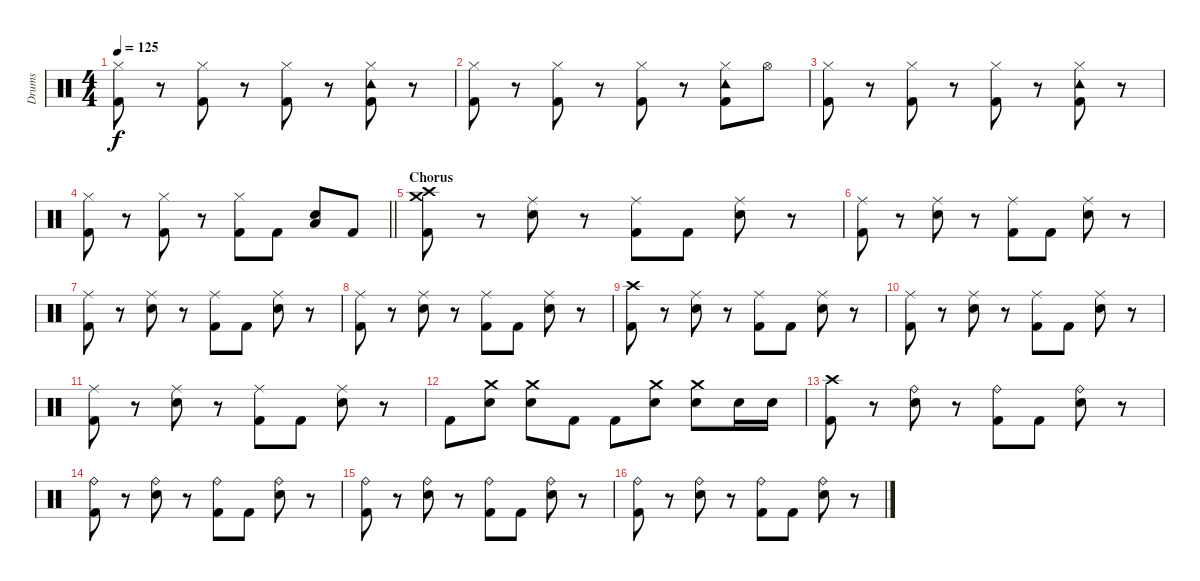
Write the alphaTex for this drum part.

\track ("Drums" "Drums") {instrument percussion}
\staff {score}
\articulation defaults
\ts (4 4)
\tempo 125
\clef neutral
\ks c
("Hi-Hat (closed)" "Kick (hit) 2").8{dy f} r.8 ("Hi-Hat (closed)" "Kick (hit) 2").8 r.8 ("Hi-Hat (closed)" "Kick (hit) 2").8 r.8 ("Tambourine (hit)" "Hi-Hat (closed)" "Kick (hit) 2").8 r.8 |
("Hi-Hat (closed)" "Kick (hit) 2").8 r.8 ("Hi-Hat (closed)" "Kick (hit) 2").8 r.8 ("Hi-Hat (closed)" "Kick (hit) 2").8 r.8 ("Tambourine (hit)" "Hi-Hat (closed)" "Kick (hit) 2").8 "Hi-Hat (open)".8 |
("Hi-Hat (closed)" "Kick (hit) 2").8 r.8 ("Hi-Hat (closed)" "Kick (hit) 2").8 r.8 ("Hi-Hat (closed)" "Kick (hit) 2").8 r.8 ("Tambourine (hit)" "Hi-Hat (closed)" "Kick (hit) 2").8 r.8 |
\barLineRight lightlight
("Hi-Hat (closed)" "Kick (hit) 2").8 r.8 ("Hi-Hat (closed)" "Kick (hit) 2").8 r.8 ("Hi-Hat (closed)" "Kick (hit) 2").8 "Kick (hit) 2".8 ("Snare (hit) 2" "Low Tom (hit)").8 "Kick (hit) 2".8 |
\section ("" "Chorus")
("Crash medium (hit)" "Crash high (hit)" "Kick (hit) 2").8 r.8 ("Ride (middle)" "Snare (hit) 2").8 r.8 ("Ride (middle)" "Kick (hit) 2").8 "Kick (hit) 2".8 ("Ride (middle)" "Snare (hit) 2").8 r.8 |
("Ride (middle)" "Kick (hit) 2").8 r.8 ("Ride (middle)" "Snare (hit) 2").8 r.8 ("Ride (middle)" "Kick (hit) 2").8 "Kick (hit) 2".8 ("Ride (middle)" "Snare (hit) 2").8 r.8 |
("Ride (middle)" "Kick (hit) 2").8 r.8 ("Ride (middle)" "Snare (hit) 2").8 r.8 ("Ride (middle)" "Kick (hit) 2").8 "Kick (hit) 2".8 ("Ride (middle)" "Snare (hit) 2").8 r.8 |
("Ride (middle)" "Kick (hit) 2").8 r.8 ("Ride (middle)" "Snare (hit) 2").8 r.8 ("Ride (middle)" "Kick (hit) 2").8 "Kick (hit) 2".8 ("Ride (middle)" "Snare (hit) 2").8 r.8 |
("Crash high (hit)" "Kick (hit) 2").8 r.8 ("Ride (middle)" "Snare (hit) 2").8 r.8 ("Ride (middle)" "Kick (hit) 2").8 "Kick (hit) 2".8 ("Ride (middle)" "Snare (hit) 2").8 r.8 |
("Ride (middle)" "Kick (hit) 2").8 r.8 ("Ride (middle)" "Snare (hit) 2").8 r.8 ("Ride (middle)" "Kick (hit) 2").8 "Kick (hit) 2".8 ("Ride (middle)" "Snare (hit) 2").8 r.8 |
("Ride (middle)" "Kick (hit) 2").8 r.8 ("Ride (middle)" "Snare (hit) 2").8 r.8 ("Ride (middle)" "Kick (hit) 2").8 "Kick (hit) 2".8 ("Ride (middle)" "Snare (hit) 2").8 r.8 |
"Kick (hit) 2".8 ("Crash medium (hit)" "Snare (hit) 2").8 ("Crash medium (hit)" "Snare (hit) 2").8 "Kick (hit) 2".8 "Kick (hit) 2".8 ("Crash medium (hit)" "Snare (hit) 2").8 ("Crash medium (hit)" "Snare (hit) 2").8 "Snare (hit) 2".16 "Snare (hit) 2".16 |
("Crash high (hit)" "Kick (hit) 2").8 r.8 ("Ride (bell)" "Snare (hit) 2").8 r.8 ("Ride (bell)" "Kick (hit) 2").8 "Kick (hit) 2".8 ("Ride (bell)" "Snare (hit) 2").8 r.8 |
("Ride (bell)" "Kick (hit) 2").8 r.8 ("Ride (bell)" "Snare (hit) 2").8 r.8 ("Ride (bell)" "Kick (hit) 2").8 "Kick (hit) 2".8 ("Ride (bell)" "Snare (hit) 2").8 r.8 |
("Ride (bell)" "Kick (hit) 2").8 r.8 ("Ride (bell)" "Snare (hit) 2").8 r.8 ("Ride (bell)" "Kick (hit) 2").8 "Kick (hit) 2".8 ("Ride (bell)" "Snare (hit) 2").8 r.8 |
("Ride (bell)" "Kick (hit) 2").8 r.8 ("Ride (bell)" "Snare (hit) 2").8 r.8 ("Ride (bell)" "Kick (hit) 2").8 "Kick (hit) 2".8 ("Ride (bell)" "Snare (hit) 2").8 r.8
